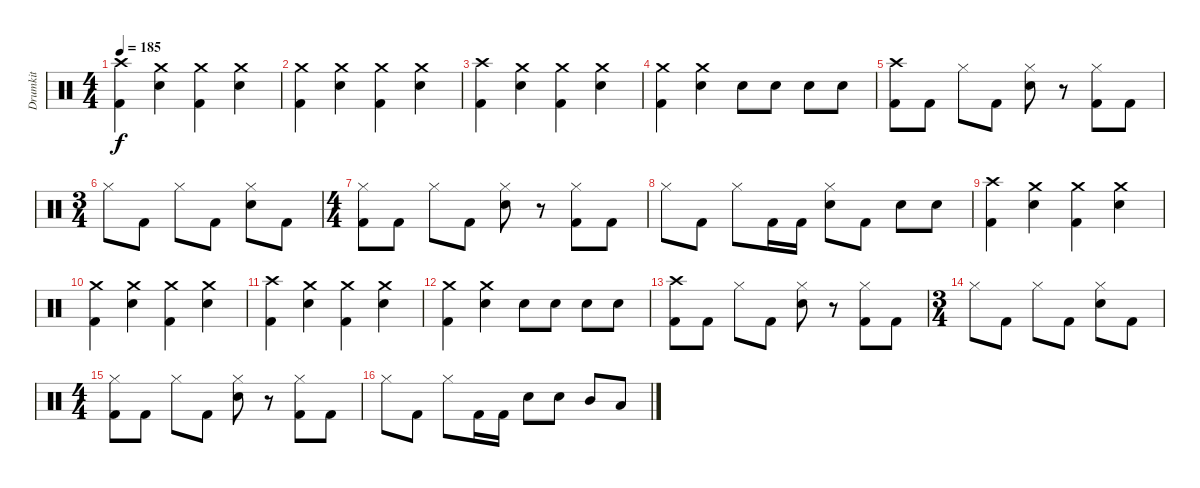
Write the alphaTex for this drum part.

\track ("Drumkit" "Drumkit") {instrument percussion}
\staff {score}
\articulation defaults
\ts (4 4)
\tempo 185
\clef neutral
\ks c
("Crash high (hit)" "Kick (hit) 2").4{dy f} ("Crash medium (hit)" "Electric Snare (hit)").4 ("Crash medium (hit)" "Kick (hit) 2").4 ("Crash medium (hit)" "Electric Snare (hit)").4 |
("Crash medium (hit)" "Kick (hit) 2").4 ("Crash medium (hit)" "Electric Snare (hit)").4 ("Crash medium (hit)" "Kick (hit) 2").4 ("Crash medium (hit)" "Electric Snare (hit)").4 |
("Crash high (hit)" "Kick (hit) 2").4 ("Crash medium (hit)" "Electric Snare (hit)").4 ("Crash medium (hit)" "Kick (hit) 2").4 ("Crash medium (hit)" "Electric Snare (hit)").4 |
("Crash medium (hit)" "Kick (hit) 2").4 ("Crash medium (hit)" "Electric Snare (hit)").4 "Electric Snare (hit)".8 "Electric Snare (hit)".8 "Electric Snare (hit)".8 "Electric Snare (hit)".8 |
("Crash high (hit)" "Kick (hit) 2").8 "Kick (hit) 2".8 "Hi-Hat (closed)".8 "Kick (hit) 2".8 ("Hi-Hat (closed)" "Electric Snare (hit)").8 r.8 ("Hi-Hat (closed)" "Kick (hit) 2").8 "Kick (hit) 2".8 |
\ts (3 4)
"Hi-Hat (closed)".8 "Kick (hit) 2".8 "Hi-Hat (closed)".8 "Kick (hit) 2".8 ("Hi-Hat (closed)" "Electric Snare (hit)").8 "Kick (hit) 2".8 |
\ts (4 4)
("Hi-Hat (closed)" "Kick (hit) 2").8 "Kick (hit) 2".8 "Hi-Hat (closed)".8 "Kick (hit) 2".8 ("Hi-Hat (closed)" "Electric Snare (hit)").8 r.8 ("Hi-Hat (closed)" "Kick (hit) 2").8 "Kick (hit) 2".8 |
"Hi-Hat (closed)".8 "Kick (hit) 2".8 "Hi-Hat (closed)".8 "Kick (hit) 2".16 "Kick (hit) 2".16 ("Hi-Hat (closed)" "Electric Snare (hit)").8 "Kick (hit) 2".8 "Electric Snare (hit)".8 "Electric Snare (hit)".8 |
("Crash high (hit)" "Kick (hit) 2").4 ("Crash medium (hit)" "Electric Snare (hit)").4 ("Crash medium (hit)" "Kick (hit) 2").4 ("Crash medium (hit)" "Electric Snare (hit)").4 |
("Crash medium (hit)" "Kick (hit) 2").4 ("Crash medium (hit)" "Electric Snare (hit)").4 ("Crash medium (hit)" "Kick (hit) 2").4 ("Crash medium (hit)" "Electric Snare (hit)").4 |
("Crash high (hit)" "Kick (hit) 2").4 ("Crash medium (hit)" "Electric Snare (hit)").4 ("Crash medium (hit)" "Kick (hit) 2").4 ("Crash medium (hit)" "Electric Snare (hit)").4 |
("Crash medium (hit)" "Kick (hit) 2").4 ("Crash medium (hit)" "Electric Snare (hit)").4 "Electric Snare (hit)".8 "Electric Snare (hit)".8 "Electric Snare (hit)".8 "Electric Snare (hit)".8 |
("Crash high (hit)" "Kick (hit) 2").8 "Kick (hit) 2".8 "Hi-Hat (closed)".8 "Kick (hit) 2".8 ("Hi-Hat (closed)" "Electric Snare (hit)").8 r.8 ("Hi-Hat (closed)" "Kick (hit) 2").8 "Kick (hit) 2".8 |
\ts (3 4)
"Hi-Hat (closed)".8 "Kick (hit) 2".8 "Hi-Hat (closed)".8 "Kick (hit) 2".8 ("Hi-Hat (closed)" "Electric Snare (hit)").8 "Kick (hit) 2".8 |
\ts (4 4)
("Hi-Hat (closed)" "Kick (hit) 2").8 "Kick (hit) 2".8 "Hi-Hat (closed)".8 "Kick (hit) 2".8 ("Hi-Hat (closed)" "Electric Snare (hit)").8 r.8 ("Hi-Hat (closed)" "Kick (hit) 2").8 "Kick (hit) 2".8 |
"Hi-Hat (closed)".8 "Kick (hit) 2".8 "Hi-Hat (closed)".8 "Kick (hit) 2".16 "Kick (hit) 2".16 "Electric Snare (hit)".8 "Electric Snare (hit)".8 "Mid Tom (hit)".8 "Low Tom (hit)".8
